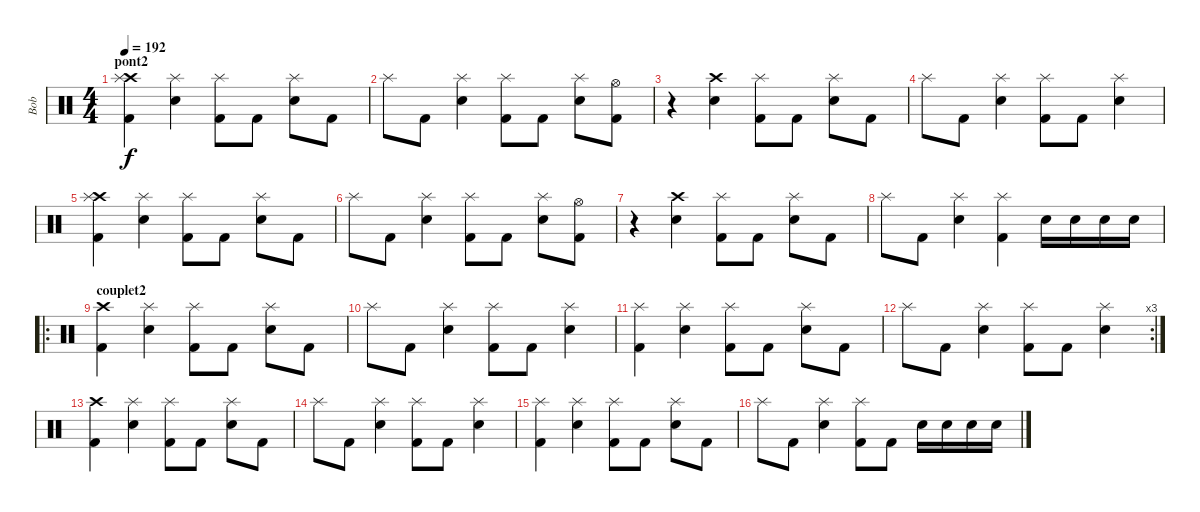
\track ("Bob" "Bob") {instrument percussion}
\staff {score}
\articulation defaults
\ts (4 4)
\section ("" "pont2")
\tempo 192
\clef neutral
\ks c
("Crash high (hit)" "Splash (hit)" "Kick (hit) 2").4{dy f} ("Splash (hit)" "Electric Snare (hit)").4 ("Splash (hit)" "Kick (hit) 2").8 "Kick (hit) 2".8 ("Splash (hit)" "Electric Snare (hit)").8 "Kick (hit) 2".8 |
"Splash (hit)".8 "Kick (hit) 2".8 ("Splash (hit)" "Electric Snare (hit)").4 ("Splash (hit)" "Kick (hit) 2").8 "Kick (hit) 2".8 ("Splash (hit)" "Electric Snare (hit)").8 ("Hi-Hat (open)" "Kick (hit) 2").8 |
r.4 ("Crash high (hit)" "Electric Snare (hit)").4 ("Splash (hit)" "Kick (hit) 2").8 "Kick (hit) 2".8 ("Splash (hit)" "Electric Snare (hit)").8 "Kick (hit) 2".8 |
"Splash (hit)".8 "Kick (hit) 2".8 ("Splash (hit)" "Electric Snare (hit)").4 ("Splash (hit)" "Kick (hit) 2").8 "Kick (hit) 2".8 ("Splash (hit)" "Electric Snare (hit)").4 |
("Crash high (hit)" "Splash (hit)" "Kick (hit) 2").4 ("Splash (hit)" "Electric Snare (hit)").4 ("Splash (hit)" "Kick (hit) 2").8 "Kick (hit) 2".8 ("Splash (hit)" "Electric Snare (hit)").8 "Kick (hit) 2".8 |
"Splash (hit)".8 "Kick (hit) 2".8 ("Splash (hit)" "Electric Snare (hit)").4 ("Splash (hit)" "Kick (hit) 2").8 "Kick (hit) 2".8 ("Splash (hit)" "Electric Snare (hit)").8 ("Hi-Hat (open)" "Kick (hit) 2").8 |
r.4 ("Crash high (hit)" "Electric Snare (hit)").4 ("Splash (hit)" "Kick (hit) 2").8 "Kick (hit) 2".8 ("Splash (hit)" "Electric Snare (hit)").8 "Kick (hit) 2".8 |
"Splash (hit)".8 "Kick (hit) 2".8 ("Splash (hit)" "Electric Snare (hit)").4 ("Splash (hit)" "Kick (hit) 2").4 "Electric Snare (hit)".16 "Electric Snare (hit)".16 "Electric Snare (hit)".16 "Electric Snare (hit)".16 |
\ro
\section ("" "couplet2")
("Crash high (hit)" "Kick (hit) 2").4 ("Splash (hit)" "Electric Snare (hit)").4 ("Splash (hit)" "Kick (hit) 2").8 "Kick (hit) 2".8 ("Splash (hit)" "Electric Snare (hit)").8 "Kick (hit) 2".8 |
"Splash (hit)".8 "Kick (hit) 2".8 ("Splash (hit)" "Electric Snare (hit)").4 ("Splash (hit)" "Kick (hit) 2").8 "Kick (hit) 2".8 ("Splash (hit)" "Electric Snare (hit)").4 |
("Splash (hit)" "Kick (hit) 2").4 ("Splash (hit)" "Electric Snare (hit)").4 ("Splash (hit)" "Kick (hit) 2").8 "Kick (hit) 2".8 ("Splash (hit)" "Electric Snare (hit)").8 "Kick (hit) 2".8 |
\rc 3 "Splash (hit)".8 "Kick (hit) 2".8
("Splash (hit)" "Electric Snare (hit)").4 ("Splash (hit)" "Kick (hit) 2").8 "Kick (hit) 2".8 ("Splash (hit)" "Electric Snare (hit)").4 |
("Crash high (hit)" "Kick (hit) 2").4 ("Splash (hit)" "Electric Snare (hit)").4 ("Splash (hit)" "Kick (hit) 2").8 "Kick (hit) 2".8 ("Splash (hit)" "Electric Snare (hit)").8 "Kick (hit) 2".8 |
"Splash (hit)".8 "Kick (hit) 2".8 ("Splash (hit)" "Electric Snare (hit)").4 ("Splash (hit)" "Kick (hit) 2").8 "Kick (hit) 2".8 ("Splash (hit)" "Electric Snare (hit)").4 |
("Splash (hit)" "Kick (hit) 2").4 ("Splash (hit)" "Electric Snare (hit)").4 ("Splash (hit)" "Kick (hit) 2").8 "Kick (hit) 2".8 ("Splash (hit)" "Electric Snare (hit)").8 "Kick (hit) 2".8 |
"Splash (hit)".8 "Kick (hit) 2".8 ("Splash (hit)" "Electric Snare (hit)").4 ("Splash (hit)" "Kick (hit) 2").8 "Kick (hit) 2".8 "Electric Snare (hit)".16 "Electric Snare (hit)".16 "Electric Snare (hit)".16 "Electric Snare (hit)".16
